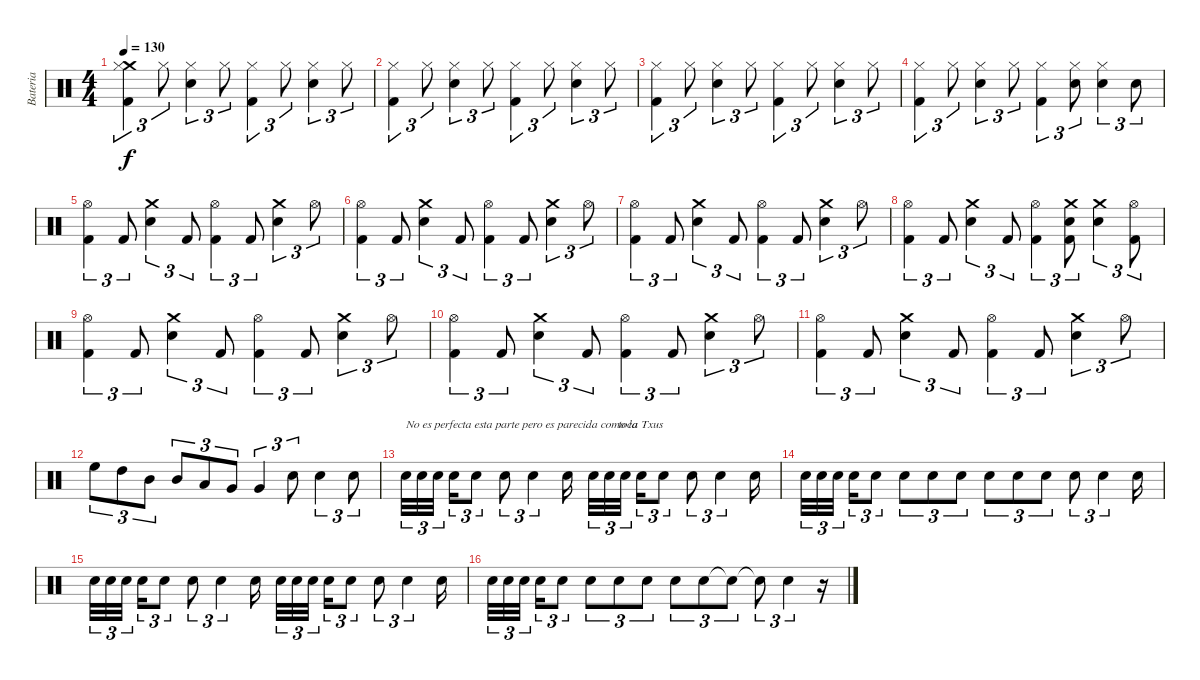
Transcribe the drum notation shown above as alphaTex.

\track ("Bateria" "Bateria") {instrument percussion}
\staff {score}
\articulation defaults
\ts (4 4)
\tempo 130
\clef neutral
\ks c
("Crash medium (hit)" "Hi-Hat (closed)" "Kick (hit) 2").4{tu (3 2) dy f} "Hi-Hat (closed)".8{tu (3 2)} ("Hi-Hat (closed)" "Snare (hit) 2").4{tu (3 2)} "Hi-Hat (closed)".8{tu (3 2)} ("Hi-Hat (closed)" "Kick (hit) 2").4{tu (3 2)} "Hi-Hat (closed)".8{tu (3 2)} ("Hi-Hat (closed)" "Snare (hit) 2").4{tu (3 2)} "Hi-Hat (closed)".8{tu (3 2)} |
("Hi-Hat (closed)" "Kick (hit) 2").4{tu (3 2)} "Hi-Hat (closed)".8{tu (3 2)} ("Hi-Hat (closed)" "Snare (hit) 2").4{tu (3 2)} "Hi-Hat (closed)".8{tu (3 2)} ("Hi-Hat (closed)" "Kick (hit) 2").4{tu (3 2)} "Hi-Hat (closed)".8{tu (3 2)} ("Hi-Hat (closed)" "Snare (hit) 2").4{tu (3 2)} "Hi-Hat (closed)".8{tu (3 2)} |
("Hi-Hat (closed)" "Kick (hit) 2").4{tu (3 2)} "Hi-Hat (closed)".8{tu (3 2)} ("Hi-Hat (closed)" "Snare (hit) 2").4{tu (3 2)} "Hi-Hat (closed)".8{tu (3 2)} ("Hi-Hat (closed)" "Kick (hit) 2").4{tu (3 2)} "Hi-Hat (closed)".8{tu (3 2)} ("Hi-Hat (closed)" "Snare (hit) 2").4{tu (3 2)} "Hi-Hat (closed)".8{tu (3 2)} |
("Hi-Hat (closed)" "Kick (hit) 2").4{tu (3 2)} "Hi-Hat (closed)".8{tu (3 2)} ("Hi-Hat (closed)" "Snare (hit) 2").4{tu (3 2)} "Hi-Hat (closed)".8{tu (3 2)} ("Hi-Hat (closed)" "Kick (hit) 2").4{tu (3 2)} ("Hi-Hat (closed)" "Snare (hit) 2").8{tu (3 2)} ("Hi-Hat (closed)" "Snare (hit) 2").4{tu (3 2)} "Snare (hit) 2".8{tu (3 2)} |
("Hi-Hat (open)" "Kick (hit) 2").4{tu (3 2)} "Kick (hit) 2".8{tu (3 2)} ("Crash medium (hit)" "Snare (hit) 2").4{tu (3 2)} "Kick (hit) 2".8{tu (3 2)} ("Hi-Hat (open)" "Kick (hit) 2").4{tu (3 2)} "Kick (hit) 2".8{tu (3 2)} ("Crash medium (hit)" "Snare (hit) 2").4{tu (3 2)} "Hi-Hat (open)".8{tu (3 2)} |
("Hi-Hat (open)" "Kick (hit) 2").4{tu (3 2)} "Kick (hit) 2".8{tu (3 2)} ("Crash medium (hit)" "Snare (hit) 2").4{tu (3 2)} "Kick (hit) 2".8{tu (3 2)} ("Hi-Hat (open)" "Kick (hit) 2").4{tu (3 2)} "Kick (hit) 2".8{tu (3 2)} ("Crash medium (hit)" "Snare (hit) 2").4{tu (3 2)} "Hi-Hat (open)".8{tu (3 2)} |
("Hi-Hat (open)" "Kick (hit) 2").4{tu (3 2)} "Kick (hit) 2".8{tu (3 2)} ("Crash medium (hit)" "Snare (hit) 2").4{tu (3 2)} "Kick (hit) 2".8{tu (3 2)} ("Hi-Hat (open)" "Kick (hit) 2").4{tu (3 2)} "Kick (hit) 2".8{tu (3 2)} ("Crash medium (hit)" "Snare (hit) 2").4{tu (3 2)} "Hi-Hat (open)".8{tu (3 2)} |
("Hi-Hat (open)" "Kick (hit) 2").4{tu (3 2)} "Kick (hit) 2".8{tu (3 2)} ("Crash medium (hit)" "Snare (hit) 2").4{tu (3 2)} "Kick (hit) 2".8{tu (3 2)} ("Hi-Hat (open)" "Kick (hit) 2").4{tu (3 2)} ("Snare (hit) 2" "Crash medium (hit)" "Kick (hit) 2").8{tu (3 2)} ("Crash medium (hit)" "Snare (hit) 2").4{tu (3 2)} ("Hi-Hat (open)" "Kick (hit) 2").8{tu (3 2)} |
("Hi-Hat (open)" "Kick (hit) 2").4{tu (3 2)} "Kick (hit) 2".8{tu (3 2)} ("Crash medium (hit)" "Snare (hit) 2").4{tu (3 2)} "Kick (hit) 2".8{tu (3 2)} ("Hi-Hat (open)" "Kick (hit) 2").4{tu (3 2)} "Kick (hit) 2".8{tu (3 2)} ("Crash medium (hit)" "Snare (hit) 2").4{tu (3 2)} "Hi-Hat (open)".8{tu (3 2)} |
("Hi-Hat (open)" "Kick (hit) 2").4{tu (3 2)} "Kick (hit) 2".8{tu (3 2)} ("Crash medium (hit)" "Snare (hit) 2").4{tu (3 2)} "Kick (hit) 2".8{tu (3 2)} ("Hi-Hat (open)" "Kick (hit) 2").4{tu (3 2)} "Kick (hit) 2".8{tu (3 2)} ("Crash medium (hit)" "Snare (hit) 2").4{tu (3 2)} "Hi-Hat (open)".8{tu (3 2)} |
("Hi-Hat (open)" "Kick (hit) 2").4{tu (3 2)} "Kick (hit) 2".8{tu (3 2)} ("Crash medium (hit)" "Snare (hit) 2").4{tu (3 2)} "Kick (hit) 2".8{tu (3 2)} ("Hi-Hat (open)" "Kick (hit) 2").4{tu (3 2)} "Kick (hit) 2".8{tu (3 2)} ("Crash medium (hit)" "Snare (hit) 2").4{tu (3 2)} "Hi-Hat (open)".8{tu (3 2)} |
"High Floor Tom (hit)".8{tu (3 2)} "High Tom (hit)".8{tu (3 2)} "Mid Tom (hit)".8{tu (3 2)} "Mid Tom (hit)".8{tu (3 2)} "Low Tom (hit)".8{tu (3 2)} "Very Low Tom (hit)".8{tu (3 2)} "Very Low Tom (hit)".4{tu (3 2)} "Snare (hit) 2".8{tu (3 2)} "Snare (hit) 2".4{tu (3 2)} "Snare (hit) 2".8{tu (3 2)} |
"Snare (hit) 2".32{tu (3 2) txt "No es perfecta esta parte pero es parecida como la"} "Snare (hit) 2".32{tu (3 2)} "Snare (hit) 2".32{tu (3 2)} "Snare (hit) 2".16{tu (3 2)} "Snare (hit) 2".8{tu (3 2)} "Snare (hit) 2".8{tu (3 2)} "Snare (hit) 2".4{tu (3 2)} "Snare (hit) 2".16 "Snare (hit) 2".32{tu (3 2)} "Snare (hit) 2".32{tu (3 2) txt "   toca Txus"} "Snare (hit) 2".32{tu (3 2)} "Snare (hit) 2".16{tu (3 2)} "Snare (hit) 2".8{tu (3 2)} "Snare (hit) 2".8{tu (3 2)} "Snare (hit) 2".4{tu (3 2)} "Snare (hit) 2".16 |
"Snare (hit) 2".32{tu (3 2)} "Snare (hit) 2".32{tu (3 2)} "Snare (hit) 2".32{tu (3 2)} "Snare (hit) 2".16{tu (3 2)} "Snare (hit) 2".8{tu (3 2)} "Snare (hit) 2".8{tu (3 2)} "Snare (hit) 2".8{tu (3 2)} "Snare (hit) 2".8{tu (3 2)} "Snare (hit) 2".8{tu (3 2)} "Snare (hit) 2".8{tu (3 2)} "Snare (hit) 2".8{tu (3 2)} "Snare (hit) 2".8{tu (3 2)} "Snare (hit) 2".4{tu (3 2)} "Snare (hit) 2".16 |
"Snare (hit) 2".32{tu (3 2)} "Snare (hit) 2".32{tu (3 2)} "Snare (hit) 2".32{tu (3 2)} "Snare (hit) 2".16{tu (3 2)} "Snare (hit) 2".8{tu (3 2)} "Snare (hit) 2".8{tu (3 2)} "Snare (hit) 2".4{tu (3 2)} "Snare (hit) 2".16 "Snare (hit) 2".32{tu (3 2)} "Snare (hit) 2".32{tu (3 2)} "Snare (hit) 2".32{tu (3 2)} "Snare (hit) 2".16{tu (3 2)} "Snare (hit) 2".8{tu (3 2)} "Snare (hit) 2".8{tu (3 2)} "Snare (hit) 2".4{tu (3 2)} "Snare (hit) 2".16 |
"Snare (hit) 2".32{tu (3 2)} "Snare (hit) 2".32{tu (3 2)} "Snare (hit) 2".32{tu (3 2)} "Snare (hit) 2".16{tu (3 2)} "Snare (hit) 2".8{tu (3 2)} "Snare (hit) 2".8{tu (3 2)} "Snare (hit) 2".8{tu (3 2)} "Snare (hit) 2".8{tu (3 2)} "Snare (hit) 2".8{tu (3 2)} "Snare (hit) 2".8{tu (3 2)} "Snare (hit) 2"{t}.8{tu (3 2)} "Snare (hit) 2"{t}.8{tu (3 2)} "Snare (hit) 2".4{tu (3 2)} r.16
